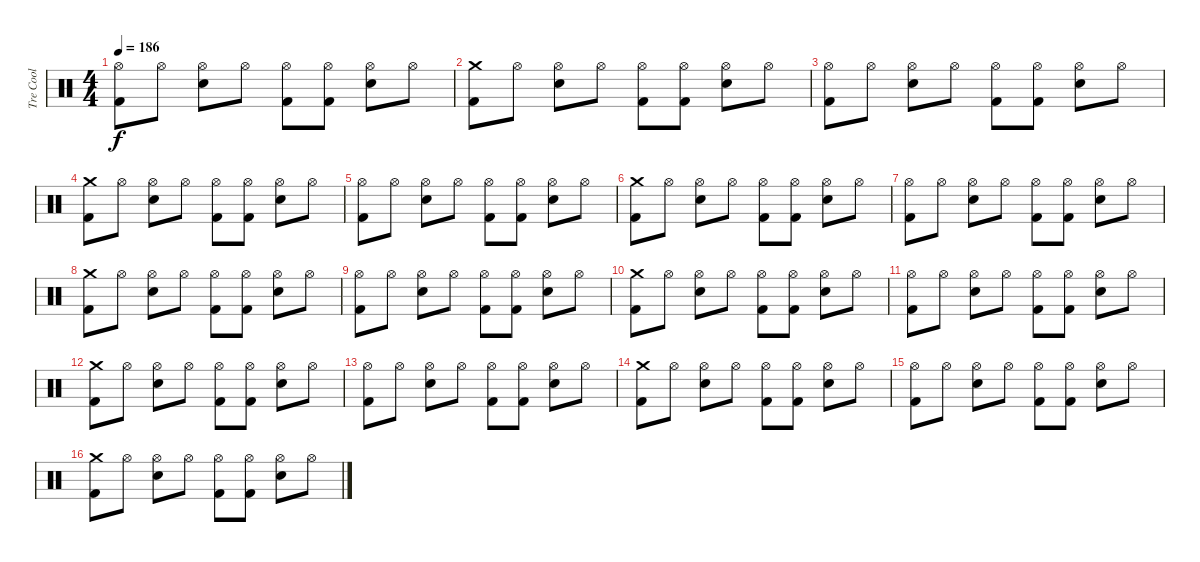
\track ("Tre Cool" "Tre Cool") {instrument percussion}
\staff {score}
\articulation defaults
\ts (4 4)
\tempo 186
\clef neutral
\ks c
("Hi-Hat (open)" "Kick (hit) 2").8{dy f} "Hi-Hat (open)".8 ("Hi-Hat (open)" "Snare (hit) 2").8 "Hi-Hat (open)".8 ("Hi-Hat (open)" "Kick (hit) 2").8 ("Hi-Hat (open)" "Kick (hit) 2").8 ("Hi-Hat (open)" "Snare (hit) 2").8 "Hi-Hat (open)".8 |
("Crash medium (hit)" "Kick (hit) 2").8 "Hi-Hat (open)".8 ("Hi-Hat (open)" "Snare (hit) 2").8 "Hi-Hat (open)".8 ("Hi-Hat (open)" "Kick (hit) 2").8 ("Hi-Hat (open)" "Kick (hit) 2").8 ("Hi-Hat (open)" "Snare (hit) 2").8 "Hi-Hat (open)".8 |
("Hi-Hat (open)" "Kick (hit) 2").8 "Hi-Hat (open)".8 ("Hi-Hat (open)" "Snare (hit) 2").8 "Hi-Hat (open)".8 ("Hi-Hat (open)" "Kick (hit) 2").8 ("Hi-Hat (open)" "Kick (hit) 2").8 ("Hi-Hat (open)" "Snare (hit) 2").8 "Hi-Hat (open)".8 |
("Crash medium (hit)" "Kick (hit) 2").8 "Hi-Hat (open)".8 ("Hi-Hat (open)" "Snare (hit) 2").8 "Hi-Hat (open)".8 ("Hi-Hat (open)" "Kick (hit) 2").8 ("Hi-Hat (open)" "Kick (hit) 2").8 ("Hi-Hat (open)" "Snare (hit) 2").8 "Hi-Hat (open)".8 |
("Hi-Hat (open)" "Kick (hit) 2").8 "Hi-Hat (open)".8 ("Hi-Hat (open)" "Snare (hit) 2").8 "Hi-Hat (open)".8 ("Hi-Hat (open)" "Kick (hit) 2").8 ("Hi-Hat (open)" "Kick (hit) 2").8 ("Hi-Hat (open)" "Snare (hit) 2").8 "Hi-Hat (open)".8 |
("Crash medium (hit)" "Kick (hit) 2").8 "Hi-Hat (open)".8 ("Hi-Hat (open)" "Snare (hit) 2").8 "Hi-Hat (open)".8 ("Hi-Hat (open)" "Kick (hit) 2").8 ("Hi-Hat (open)" "Kick (hit) 2").8 ("Hi-Hat (open)" "Snare (hit) 2").8 "Hi-Hat (open)".8 |
("Hi-Hat (open)" "Kick (hit) 2").8 "Hi-Hat (open)".8 ("Hi-Hat (open)" "Snare (hit) 2").8 "Hi-Hat (open)".8 ("Hi-Hat (open)" "Kick (hit) 2").8 ("Hi-Hat (open)" "Kick (hit) 2").8 ("Hi-Hat (open)" "Snare (hit) 2").8 "Hi-Hat (open)".8 |
("Crash medium (hit)" "Kick (hit) 2").8 "Hi-Hat (open)".8 ("Hi-Hat (open)" "Snare (hit) 2").8 "Hi-Hat (open)".8 ("Hi-Hat (open)" "Kick (hit) 2").8 ("Hi-Hat (open)" "Kick (hit) 2").8 ("Hi-Hat (open)" "Snare (hit) 2").8 "Hi-Hat (open)".8 |
("Hi-Hat (open)" "Kick (hit) 2").8 "Hi-Hat (open)".8 ("Hi-Hat (open)" "Snare (hit) 2").8 "Hi-Hat (open)".8 ("Hi-Hat (open)" "Kick (hit) 2").8 ("Hi-Hat (open)" "Kick (hit) 2").8 ("Hi-Hat (open)" "Snare (hit) 2").8 "Hi-Hat (open)".8 |
("Crash medium (hit)" "Kick (hit) 2").8 "Hi-Hat (open)".8 ("Hi-Hat (open)" "Snare (hit) 2").8 "Hi-Hat (open)".8 ("Hi-Hat (open)" "Kick (hit) 2").8 ("Hi-Hat (open)" "Kick (hit) 2").8 ("Hi-Hat (open)" "Snare (hit) 2").8 "Hi-Hat (open)".8 |
("Hi-Hat (open)" "Kick (hit) 2").8 "Hi-Hat (open)".8 ("Hi-Hat (open)" "Snare (hit) 2").8 "Hi-Hat (open)".8 ("Hi-Hat (open)" "Kick (hit) 2").8 ("Hi-Hat (open)" "Kick (hit) 2").8 ("Hi-Hat (open)" "Snare (hit) 2").8 "Hi-Hat (open)".8 |
("Crash medium (hit)" "Kick (hit) 2").8 "Hi-Hat (open)".8 ("Hi-Hat (open)" "Snare (hit) 2").8 "Hi-Hat (open)".8 ("Hi-Hat (open)" "Kick (hit) 2").8 ("Hi-Hat (open)" "Kick (hit) 2").8 ("Hi-Hat (open)" "Snare (hit) 2").8 "Hi-Hat (open)".8 |
("Hi-Hat (open)" "Kick (hit) 2").8 "Hi-Hat (open)".8 ("Hi-Hat (open)" "Snare (hit) 2").8 "Hi-Hat (open)".8 ("Hi-Hat (open)" "Kick (hit) 2").8 ("Hi-Hat (open)" "Kick (hit) 2").8 ("Hi-Hat (open)" "Snare (hit) 2").8 "Hi-Hat (open)".8 |
("Crash medium (hit)" "Kick (hit) 2").8 "Hi-Hat (open)".8 ("Hi-Hat (open)" "Snare (hit) 2").8 "Hi-Hat (open)".8 ("Hi-Hat (open)" "Kick (hit) 2").8 ("Hi-Hat (open)" "Kick (hit) 2").8 ("Hi-Hat (open)" "Snare (hit) 2").8 "Hi-Hat (open)".8 |
("Hi-Hat (open)" "Kick (hit) 2").8 "Hi-Hat (open)".8 ("Hi-Hat (open)" "Snare (hit) 2").8 "Hi-Hat (open)".8 ("Hi-Hat (open)" "Kick (hit) 2").8 ("Hi-Hat (open)" "Kick (hit) 2").8 ("Hi-Hat (open)" "Snare (hit) 2").8 "Hi-Hat (open)".8 |
("Crash medium (hit)" "Kick (hit) 2").8 "Hi-Hat (open)".8 ("Hi-Hat (open)" "Snare (hit) 2").8 "Hi-Hat (open)".8 ("Hi-Hat (open)" "Kick (hit) 2").8 ("Hi-Hat (open)" "Kick (hit) 2").8 ("Hi-Hat (open)" "Snare (hit) 2").8 "Hi-Hat (open)".8
